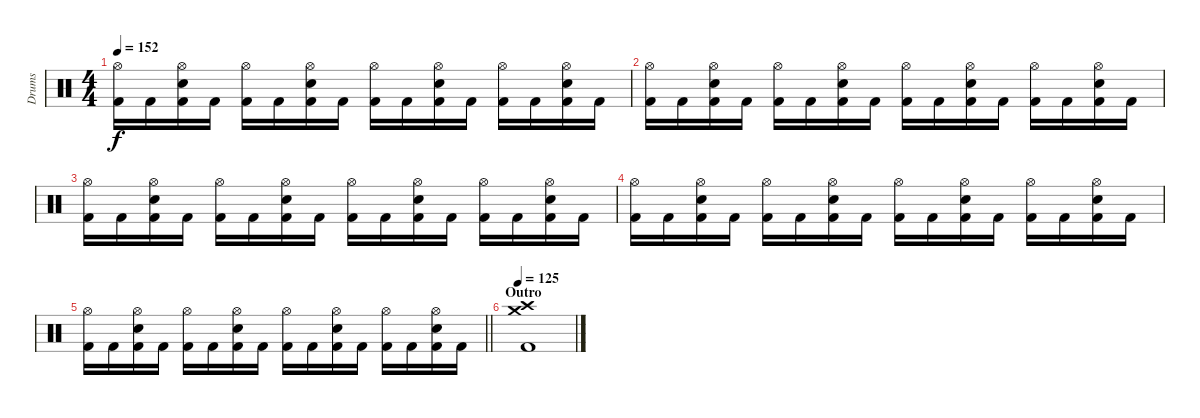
\track ("Drums" "Drums") {instrument percussion}
\staff {score}
\articulation defaults
\ts (4 4)
\tempo 152
\clef neutral
\ks c
("Hi-Hat (open)" "Kick (hit) 2").16{dy f} "Kick (hit) 2".16 ("Hi-Hat (open)" "Snare (hit) 2" "Kick (hit) 2").16 "Kick (hit) 2".16 ("Hi-Hat (open)" "Kick (hit) 2").16 "Kick (hit) 2".16 ("Hi-Hat (open)" "Snare (hit) 2" "Kick (hit) 2").16 "Kick (hit) 2".16 ("Hi-Hat (open)" "Kick (hit) 2").16 "Kick (hit) 2".16 ("Hi-Hat (open)" "Snare (hit) 2" "Kick (hit) 2").16 "Kick (hit) 2".16 ("Hi-Hat (open)" "Kick (hit) 2").16 "Kick (hit) 2".16 ("Hi-Hat (open)" "Snare (hit) 2" "Kick (hit) 2").16 "Kick (hit) 2".16 |
("Hi-Hat (open)" "Kick (hit) 2").16 "Kick (hit) 2".16 ("Hi-Hat (open)" "Snare (hit) 2" "Kick (hit) 2").16 "Kick (hit) 2".16 ("Hi-Hat (open)" "Kick (hit) 2").16 "Kick (hit) 2".16 ("Hi-Hat (open)" "Snare (hit) 2" "Kick (hit) 2").16 "Kick (hit) 2".16 ("Hi-Hat (open)" "Kick (hit) 2").16 "Kick (hit) 2".16 ("Hi-Hat (open)" "Snare (hit) 2" "Kick (hit) 2").16 "Kick (hit) 2".16 ("Hi-Hat (open)" "Kick (hit) 2").16 "Kick (hit) 2".16 ("Hi-Hat (open)" "Snare (hit) 2" "Kick (hit) 2").16 "Kick (hit) 2".16 |
("Hi-Hat (open)" "Kick (hit) 2").16 "Kick (hit) 2".16 ("Hi-Hat (open)" "Snare (hit) 2" "Kick (hit) 2").16 "Kick (hit) 2".16 ("Hi-Hat (open)" "Kick (hit) 2").16 "Kick (hit) 2".16 ("Hi-Hat (open)" "Snare (hit) 2" "Kick (hit) 2").16 "Kick (hit) 2".16 ("Hi-Hat (open)" "Kick (hit) 2").16 "Kick (hit) 2".16 ("Hi-Hat (open)" "Snare (hit) 2" "Kick (hit) 2").16 "Kick (hit) 2".16 ("Hi-Hat (open)" "Kick (hit) 2").16 "Kick (hit) 2".16 ("Hi-Hat (open)" "Snare (hit) 2" "Kick (hit) 2").16 "Kick (hit) 2".16 |
("Hi-Hat (open)" "Kick (hit) 2").16 "Kick (hit) 2".16 ("Hi-Hat (open)" "Snare (hit) 2" "Kick (hit) 2").16 "Kick (hit) 2".16 ("Hi-Hat (open)" "Kick (hit) 2").16 "Kick (hit) 2".16 ("Hi-Hat (open)" "Snare (hit) 2" "Kick (hit) 2").16 "Kick (hit) 2".16 ("Hi-Hat (open)" "Kick (hit) 2").16 "Kick (hit) 2".16 ("Hi-Hat (open)" "Snare (hit) 2" "Kick (hit) 2").16 "Kick (hit) 2".16 ("Hi-Hat (open)" "Kick (hit) 2").16 "Kick (hit) 2".16 ("Hi-Hat (open)" "Snare (hit) 2" "Kick (hit) 2").16 "Kick (hit) 2".16 |
\barLineRight lightlight
("Hi-Hat (open)" "Kick (hit) 2").16 "Kick (hit) 2".16 ("Hi-Hat (open)" "Snare (hit) 2" "Kick (hit) 2").16 "Kick (hit) 2".16 ("Hi-Hat (open)" "Kick (hit) 2").16 "Kick (hit) 2".16 ("Hi-Hat (open)" "Snare (hit) 2" "Kick (hit) 2").16 "Kick (hit) 2".16 ("Hi-Hat (open)" "Kick (hit) 2").16 "Kick (hit) 2".16 ("Hi-Hat (open)" "Snare (hit) 2" "Kick (hit) 2").16 "Kick (hit) 2".16 ("Hi-Hat (open)" "Kick (hit) 2").16 "Kick (hit) 2".16 ("Hi-Hat (open)" "Snare (hit) 2" "Kick (hit) 2").16 "Kick (hit) 2".16 |
\section ("" "Outro")
\tempo 125
("Crash high (hit)" "Crash medium (hit)" "Kick (hit) 2").1
